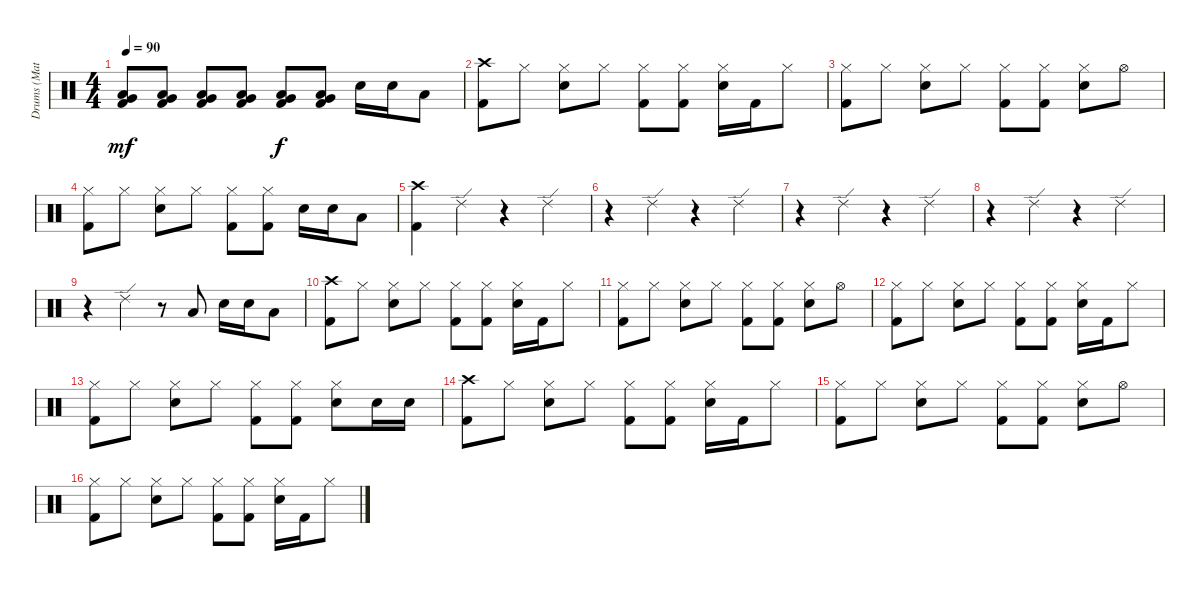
\track ("Drums (Matt)" "Drums (Mat") {instrument percussion}
\staff {score}
\articulation defaults
\ts (4 4)
\tempo 90
\clef neutral
\ks c
("Low Tom (hit)" "Very Low Tom (hit)" "Kick (hit) 2").8{dy mf} ("Low Tom (hit)" "Very Low Tom (hit)" "Kick (hit) 2").8 ("Low Tom (hit)" "Very Low Tom (hit)" "Kick (hit) 2").8 ("Low Tom (hit)" "Very Low Tom (hit)" "Kick (hit) 2").8 ("Low Tom (hit)" "Very Low Tom (hit)" "Kick (hit) 2").8{dy f} ("Low Tom (hit)" "Very Low Tom (hit)" "Kick (hit) 2").8 "Snare (hit) 2".16 "Snare (hit) 2".16 "Low Tom (hit)".8 |
("Crash high (hit)" "Kick (hit) 2").8 "Hi-Hat (closed)".8 ("Hi-Hat (closed)" "Snare (hit) 2").8 "Hi-Hat (closed)".8 ("Hi-Hat (closed)" "Kick (hit) 2").8 ("Hi-Hat (closed)" "Kick (hit) 2").8 ("Hi-Hat (closed)" "Snare (hit) 2").16 "Kick (hit) 2".16 "Hi-Hat (closed)".8 |
("Hi-Hat (closed)" "Kick (hit) 2").8 "Hi-Hat (closed)".8 ("Hi-Hat (closed)" "Snare (hit) 2").8 "Hi-Hat (closed)".8 ("Hi-Hat (closed)" "Kick (hit) 2").8 ("Hi-Hat (closed)" "Kick (hit) 2").8 ("Hi-Hat (closed)" "Snare (hit) 2").8 "Hi-Hat (open)".8 |
("Hi-Hat (closed)" "Kick (hit) 2").8 "Hi-Hat (closed)".8 ("Hi-Hat (closed)" "Snare (hit) 2").8 "Hi-Hat (closed)".8 ("Hi-Hat (closed)" "Kick (hit) 2").8 ("Hi-Hat (closed)" "Kick (hit) 2").8 "Snare (hit) 2".16 "Snare (hit) 2".16 "Low Tom (hit)".8 |
("Crash high (hit)" "Kick (hit) 2").4 "Ride (edge) 2".4 r.4 "Ride (edge) 2".4 |
r.4 "Ride (edge) 2".4 r.4 "Ride (edge) 2".4 |
r.4 "Ride (edge) 2".4 r.4 "Ride (edge) 2".4 |
r.4 "Ride (edge) 2".4 r.4 "Ride (edge) 2".4 |
r.4 "Ride (edge) 2".4 r.8 "Low Tom (hit)".8 "Snare (hit) 2".16 "Snare (hit) 2".16 "Low Tom (hit)".8 |
("Crash high (hit)" "Kick (hit) 2").8 "Hi-Hat (closed)".8 ("Hi-Hat (closed)" "Snare (hit) 2").8 "Hi-Hat (closed)".8 ("Hi-Hat (closed)" "Kick (hit) 2").8 ("Hi-Hat (closed)" "Kick (hit) 2").8 ("Hi-Hat (closed)" "Snare (hit) 2").16 "Kick (hit) 2".16 "Hi-Hat (closed)".8 |
("Hi-Hat (closed)" "Kick (hit) 2").8 "Hi-Hat (closed)".8 ("Hi-Hat (closed)" "Snare (hit) 2").8 "Hi-Hat (closed)".8 ("Hi-Hat (closed)" "Kick (hit) 2").8 ("Hi-Hat (closed)" "Kick (hit) 2").8 ("Hi-Hat (closed)" "Snare (hit) 2").8 "Hi-Hat (open)".8 |
("Hi-Hat (closed)" "Kick (hit) 2").8 "Hi-Hat (closed)".8 ("Hi-Hat (closed)" "Snare (hit) 2").8 "Hi-Hat (closed)".8 ("Hi-Hat (closed)" "Kick (hit) 2").8 ("Hi-Hat (closed)" "Kick (hit) 2").8 ("Hi-Hat (closed)" "Snare (hit) 2").16 "Kick (hit) 2".16 "Hi-Hat (closed)".8 |
("Hi-Hat (closed)" "Kick (hit) 2").8 "Hi-Hat (closed)".8 ("Hi-Hat (closed)" "Snare (hit) 2").8 "Hi-Hat (closed)".8 ("Hi-Hat (closed)" "Kick (hit) 2").8 ("Hi-Hat (closed)" "Kick (hit) 2").8 ("Hi-Hat (closed)" "Snare (hit) 2").8 "Snare (hit) 2".16 "Snare (hit) 2".16 |
("Crash high (hit)" "Kick (hit) 2").8 "Hi-Hat (closed)".8 ("Hi-Hat (closed)" "Snare (hit) 2").8 "Hi-Hat (closed)".8 ("Hi-Hat (closed)" "Kick (hit) 2").8 ("Hi-Hat (closed)" "Kick (hit) 2").8 ("Hi-Hat (closed)" "Snare (hit) 2").16 "Kick (hit) 2".16 "Hi-Hat (closed)".8 |
("Hi-Hat (closed)" "Kick (hit) 2").8 "Hi-Hat (closed)".8 ("Hi-Hat (closed)" "Snare (hit) 2").8 "Hi-Hat (closed)".8 ("Hi-Hat (closed)" "Kick (hit) 2").8 ("Hi-Hat (closed)" "Kick (hit) 2").8 ("Hi-Hat (closed)" "Snare (hit) 2").8 "Hi-Hat (open)".8 |
("Hi-Hat (closed)" "Kick (hit) 2").8 "Hi-Hat (closed)".8 ("Hi-Hat (closed)" "Snare (hit) 2").8 "Hi-Hat (closed)".8 ("Hi-Hat (closed)" "Kick (hit) 2").8 ("Hi-Hat (closed)" "Kick (hit) 2").8 ("Hi-Hat (closed)" "Snare (hit) 2").16 "Kick (hit) 2".16 "Hi-Hat (closed)".8
